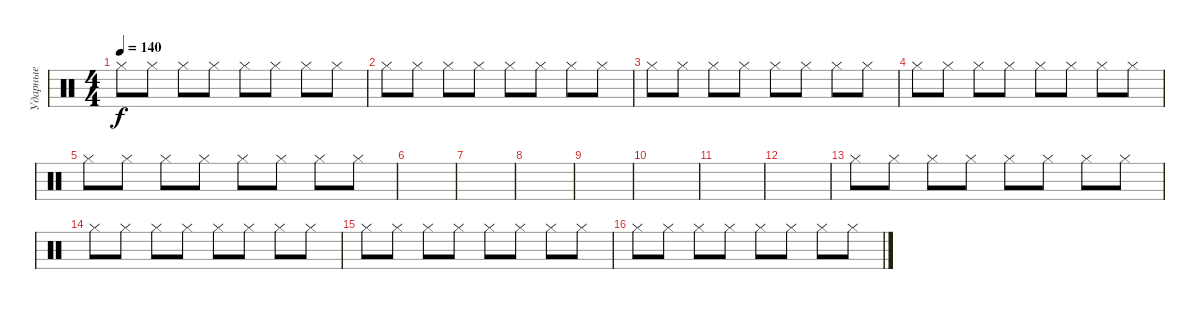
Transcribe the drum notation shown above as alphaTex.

\track ("Ударные" "Ударные") {instrument percussion}
\staff {score}
\articulation defaults
\ts (4 4)
\tempo 140
\clef neutral
\ks c "Hi-Hat (closed)".8{dy f} "Hi-Hat (closed)".8 "Hi-Hat (closed)".8 "Hi-Hat (closed)".8 "Hi-Hat (closed)".8 "Hi-Hat (closed)".8 "Hi-Hat (closed)".8 "Hi-Hat (closed)".8
|
"Hi-Hat (closed)".8 "Hi-Hat (closed)".8 "Hi-Hat (closed)".8 "Hi-Hat (closed)".8 "Hi-Hat (closed)".8 "Hi-Hat (closed)".8 "Hi-Hat (closed)".8 "Hi-Hat (closed)".8 |
"Hi-Hat (closed)".8 "Hi-Hat (closed)".8 "Hi-Hat (closed)".8 "Hi-Hat (closed)".8 "Hi-Hat (closed)".8 "Hi-Hat (closed)".8 "Hi-Hat (closed)".8 "Hi-Hat (closed)".8 |
"Hi-Hat (closed)".8 "Hi-Hat (closed)".8 "Hi-Hat (closed)".8 "Hi-Hat (closed)".8 "Hi-Hat (closed)".8 "Hi-Hat (closed)".8 "Hi-Hat (closed)".8 "Hi-Hat (closed)".8 |
"Hi-Hat (closed)".8 "Hi-Hat (closed)".8 "Hi-Hat (closed)".8 "Hi-Hat (closed)".8 "Hi-Hat (closed)".8 "Hi-Hat (closed)".8 "Hi-Hat (closed)".8 "Hi-Hat (closed)".8 |
|
|
|
|
|
|
|
"Hi-Hat (closed)".8 "Hi-Hat (closed)".8 "Hi-Hat (closed)".8 "Hi-Hat (closed)".8 "Hi-Hat (closed)".8 "Hi-Hat (closed)".8 "Hi-Hat (closed)".8 "Hi-Hat (closed)".8 |
"Hi-Hat (closed)".8 "Hi-Hat (closed)".8 "Hi-Hat (closed)".8 "Hi-Hat (closed)".8 "Hi-Hat (closed)".8 "Hi-Hat (closed)".8 "Hi-Hat (closed)".8 "Hi-Hat (closed)".8 |
"Hi-Hat (closed)".8 "Hi-Hat (closed)".8 "Hi-Hat (closed)".8 "Hi-Hat (closed)".8 "Hi-Hat (closed)".8 "Hi-Hat (closed)".8 "Hi-Hat (closed)".8 "Hi-Hat (closed)".8 |
"Hi-Hat (closed)".8 "Hi-Hat (closed)".8 "Hi-Hat (closed)".8 "Hi-Hat (closed)".8 "Hi-Hat (closed)".8 "Hi-Hat (closed)".8 "Hi-Hat (closed)".8 "Hi-Hat (closed)".8
